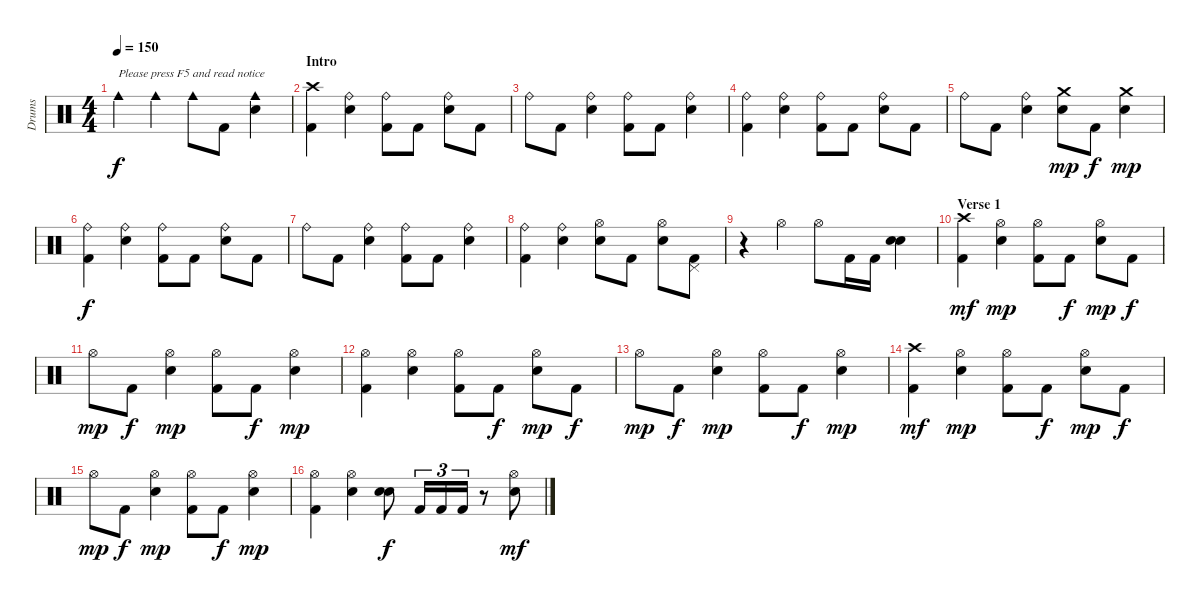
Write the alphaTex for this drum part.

\track ("Drums" "Drums") {instrument percussion}
\staff {score}
\articulation defaults
\ts (4 4)
\tempo 150
\clef neutral
\ks c "Cowbell medium (hit)".4{txt "Please press F5 and read notice" dy f} "Cowbell medium (hit)".4 "Cowbell medium (hit)".8 "Kick (hit) 2".8
("Cowbell medium (hit)" "Snare (hit) 2").4 |
\section ("" "Intro")
("Crash high (hit)" "Kick (hit) 2").4 ("Ride (bell)" "Snare (hit) 2").4 ("Ride (bell)" "Kick (hit) 2").8 "Kick (hit) 2".8 ("Ride (bell)" "Snare (hit) 2").8 "Kick (hit) 2".8 |
"Ride (bell)".8 "Kick (hit) 2".8 ("Ride (bell)" "Snare (hit) 2").4 ("Ride (bell)" "Kick (hit) 2").8 "Kick (hit) 2".8 ("Ride (bell)" "Snare (hit) 2").4 |
("Ride (bell)" "Kick (hit) 2").4 ("Ride (bell)" "Snare (hit) 2").4 ("Ride (bell)" "Kick (hit) 2").8 "Kick (hit) 2".8 ("Ride (bell)" "Snare (hit) 2").8 "Kick (hit) 2".8 |
"Ride (bell)".8 "Kick (hit) 2".8 ("Ride (bell)" "Snare (hit) 2").4 ("Crash medium (hit)" "Snare (hit) 2").8{dy mp} "Kick (hit) 2".8{dy f} ("Crash medium (hit)" "Snare (hit) 2").4{dy mp} |
("Ride (bell)" "Kick (hit) 2").4{dy f} ("Ride (bell)" "Snare (hit) 2").4 ("Ride (bell)" "Kick (hit) 2").8 "Kick (hit) 2".8 ("Ride (bell)" "Snare (hit) 2").8 "Kick (hit) 2".8 |
"Ride (bell)".8 "Kick (hit) 2".8 ("Ride (bell)" "Snare (hit) 2").4 ("Ride (bell)" "Kick (hit) 2").8 "Kick (hit) 2".8 ("Ride (bell)" "Snare (hit) 2").4 |
("Ride (bell)" "Kick (hit) 2").4 ("Ride (bell)" "Snare (hit) 2").4 ("Hi-Hat (open)" "Snare (hit) 2").8 "Kick (hit) 2".8 ("Hi-Hat (open)" "Snare (hit) 2").8 ("Pedal Hi-Hat (hit)" "Kick (hit) 2").8 |
r.4 "Hi-Hat (open)".4 "Hi-Hat (open)".8 "Kick (hit) 2".16 "Kick (hit) 2".16 ("Snare (hit) 2" "Snare (hit) 2").4 |
\section ("" "Verse 1")
("Crash high (hit)" "Kick (hit) 2").4{dy mf} ("Hi-Hat (open)" "Snare (hit) 2").4{dy mp} ("Hi-Hat (open)" "Kick (hit) 2").8 "Kick (hit) 2".8{dy f} ("Hi-Hat (open)" "Snare (hit) 2").8{dy mp} "Kick (hit) 2".8{dy f} |
"Hi-Hat (open)".8{dy mp} "Kick (hit) 2".8{dy f} ("Hi-Hat (open)" "Snare (hit) 2").4{dy mp} ("Hi-Hat (open)" "Kick (hit) 2").8 "Kick (hit) 2".8{dy f} ("Hi-Hat (open)" "Snare (hit) 2").4{dy mp} |
("Hi-Hat (open)" "Kick (hit) 2").4 ("Hi-Hat (open)" "Snare (hit) 2").4 ("Hi-Hat (open)" "Kick (hit) 2").8 "Kick (hit) 2".8{dy f} ("Hi-Hat (open)" "Snare (hit) 2").8{dy mp} "Kick (hit) 2".8{dy f} |
"Hi-Hat (open)".8{dy mp} "Kick (hit) 2".8{dy f} ("Hi-Hat (open)" "Snare (hit) 2").4{dy mp} ("Hi-Hat (open)" "Kick (hit) 2").8 "Kick (hit) 2".8{dy f} ("Hi-Hat (open)" "Snare (hit) 2").4{dy mp} |
("Crash high (hit)" "Kick (hit) 2").4{dy mf} ("Hi-Hat (open)" "Snare (hit) 2").4{dy mp} ("Hi-Hat (open)" "Kick (hit) 2").8 "Kick (hit) 2".8{dy f} ("Hi-Hat (open)" "Snare (hit) 2").8{dy mp} "Kick (hit) 2".8{dy f} |
"Hi-Hat (open)".8{dy mp} "Kick (hit) 2".8{dy f} ("Hi-Hat (open)" "Snare (hit) 2").4{dy mp} ("Hi-Hat (open)" "Kick (hit) 2").8 "Kick (hit) 2".8{dy f} ("Hi-Hat (open)" "Snare (hit) 2").4{dy mp} |
("Hi-Hat (open)" "Kick (hit) 2").4 ("Hi-Hat (open)" "Snare (hit) 2").4 ("Snare (hit) 2" "Snare (hit) 2").8{dy f} "Kick (hit) 2".16{tu (3 2)} "Kick (hit) 2".16{tu (3 2)} "Kick (hit) 2".16{tu (3 2)} r.8 ("Hi-Hat (open)" "Snare (hit) 2").8{dy mf}
